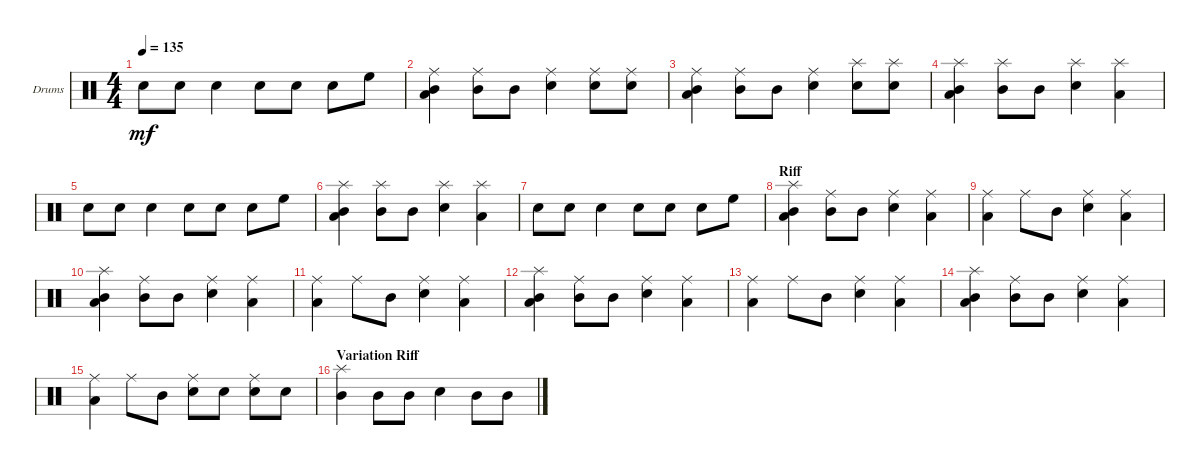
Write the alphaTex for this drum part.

\defaultSystemsLayout 4
\bracketExtendMode groupsimilarinstruments
\firstSystemTrackNameOrientation horizontal
\otherSystemsTrackNameOrientation horizontal
\track ("Drum" "Drums") {instrument percussion}
\staff {score}
\articulation defaults
\ts (4 4)
\tempo 135
\clef neutral
\scale
0.333333
\ks c "Snare (hit) 2".8{dy mf} "Snare (hit) 2".8 "Snare (hit) 2".4 "Snare (hit) 2".8 "Snare (hit) 2".8 "Snare (hit) 2".8 "High Floor Tom (hit)".8
|
\scale
0.333333 ("Mid Tom (hit)" "Low Tom (hit)" "Ride (middle)").4 ("Ride (middle)" "Mid Tom (hit)").8 "Mid Tom (hit)".8 ("Ride (middle)" "Snare (hit) 2").4 ("Ride (middle)" "Snare (hit) 2").8 ("Snare (hit) 2" "Ride (middle)").8 |
\scale
0.333333 ("Mid Tom (hit)" "Low Tom (hit)" "Ride (middle)").4 ("Ride (middle)" "Mid Tom (hit)").8 "Mid Tom (hit)".8 ("Ride (middle)" "Snare (hit) 2").4 ("Snare (hit) 2" "Splash (hit)").8 ("Snare (hit) 2" "Splash (hit)").8 |
\scale
0.333333 ("Mid Tom (hit)" "Low Tom (hit)" "Splash (hit)").4 ("Mid Tom (hit)" "Splash (hit)").8 "Mid Tom (hit)".8 ("Snare (hit) 2" "Splash (hit)").4 ("Low Tom (hit)" "Splash (hit)").4 |
\scale
0.333333 "Snare (hit) 2".8 "Snare (hit) 2".8 "Snare (hit) 2".4 "Snare (hit) 2".8 "Snare (hit) 2".8 "Snare (hit) 2".8 "High Floor Tom (hit)".8 |
\scale
0.333333 ("Mid Tom (hit)" "Low Tom (hit)" "Splash (hit)").4 ("Mid Tom (hit)" "Splash (hit)").8 "Mid Tom (hit)".8 ("Snare (hit) 2" "Splash (hit)").4 ("Low Tom (hit)" "Splash (hit)").4 |
\scale
0.333333 "Snare (hit) 2".8 "Snare (hit) 2".8 "Snare (hit) 2".4 "Snare (hit) 2".8 "Snare (hit) 2".8 "Snare (hit) 2".8 "High Floor Tom (hit)".8 |
\section ("" "Riff")
("Mid Tom (hit)" "Low Tom (hit)" "Splash (hit)").4 ("Ride (middle)" "Mid Tom (hit)").8 "Mid Tom (hit)".8 ("Ride (middle)" "Snare (hit) 2").4 ("Ride (middle)" "Low Tom (hit)").4 |
\scale
0.333333 ("Ride (middle)" "Low Tom (hit)").4 "Ride (middle)".8 "Mid Tom (hit)".8 ("Ride (middle)" "Snare (hit) 2").4 ("Ride (middle)" "Low Tom (hit)").4 |
("Mid Tom (hit)" "Low Tom (hit)" "Splash (hit)").4 ("Ride (middle)" "Mid Tom (hit)").8 "Mid Tom (hit)".8 ("Ride (middle)" "Snare (hit) 2").4 ("Ride (middle)" "Low Tom (hit)").4 |
("Ride (middle)" "Low Tom (hit)").4 "Ride (middle)".8 "Mid Tom (hit)".8 ("Ride (middle)" "Snare (hit) 2").4 ("Ride (middle)" "Low Tom (hit)").4 |
("Mid Tom (hit)" "Low Tom (hit)" "Splash (hit)").4 ("Ride (middle)" "Mid Tom (hit)").8 "Mid Tom (hit)".8 ("Ride (middle)" "Snare (hit) 2").4 ("Ride (middle)" "Low Tom (hit)").4 |
\scale
0.333333 ("Ride (middle)" "Low Tom (hit)").4 "Ride (middle)".8 "Mid Tom (hit)".8 ("Ride (middle)" "Snare (hit) 2").4 ("Ride (middle)" "Low Tom (hit)").4 |
\scale
0.333333 ("Mid Tom (hit)" "Low Tom (hit)" "Splash (hit)").4 ("Ride (middle)" "Mid Tom (hit)").8 "Mid Tom (hit)".8 ("Ride (middle)" "Snare (hit) 2").4 ("Ride (middle)" "Low Tom (hit)").4 |
\scale
0.333333 ("Ride (middle)" "Low Tom (hit)").4 "Ride (middle)".8 "Mid Tom (hit)".8 ("Ride (middle)" "Snare (hit) 2").8 "Snare (hit) 2".8 ("Ride (middle)" "Snare (hit) 2").8 "Snare (hit) 2".8 |
\section ("" "Variation Riff")
\scale
0.333333 ("Splash (hit)" "Mid Tom (hit)").4 "Mid Tom (hit)".8 "Mid Tom (hit)".8 "Snare (hit) 2".4 "Mid Tom (hit)".8 "Mid Tom (hit)".8
